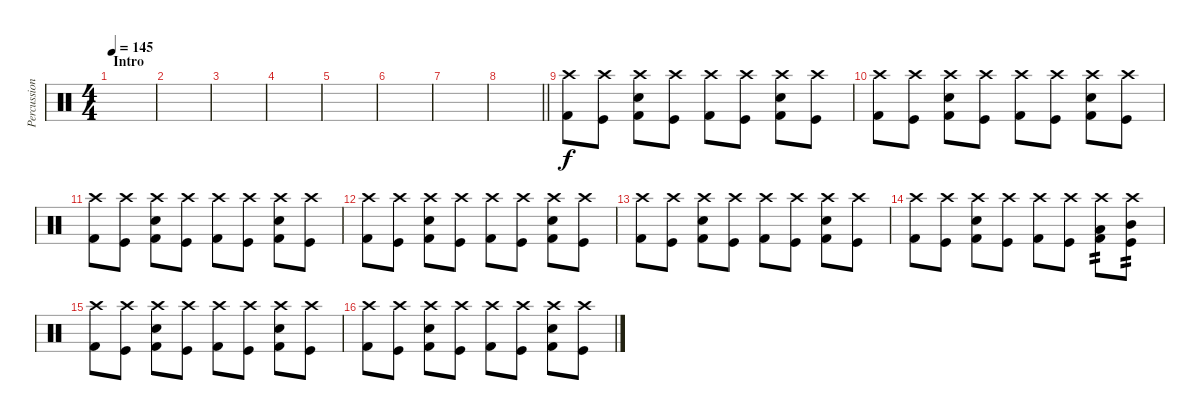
\track ("Percussion" "Percussion") {instrument percussion}
\staff {score}
\articulation defaults
\ts (4 4)
\section ("" "Intro")
\tempo 145
\clef neutral
\ks c
|
|
|
|
|
|
|
\barLineRight lightlight
|
("Crash high (hit)" "Kick (hit) 2").8 ("Crash high (hit)" "Kick (hit)").8 ("Crash high (hit)" "Snare (hit) 2" "Kick (hit) 2").8 ("Crash high (hit)" "Kick (hit)").8 ("Crash high (hit)" "Kick (hit) 2").8 ("Crash high (hit)" "Kick (hit)").8 ("Crash high (hit)" "Snare (hit) 2" "Kick (hit) 2").8 ("Crash high (hit)" "Kick (hit)").8 |
("Crash high (hit)" "Kick (hit) 2").8 ("Crash high (hit)" "Kick (hit)").8 ("Crash high (hit)" "Snare (hit) 2" "Kick (hit) 2").8 ("Crash high (hit)" "Kick (hit)").8 ("Crash high (hit)" "Kick (hit) 2").8 ("Crash high (hit)" "Kick (hit)").8 ("Crash high (hit)" "Snare (hit) 2" "Kick (hit) 2").8 ("Crash high (hit)" "Kick (hit)").8 |
("Crash high (hit)" "Kick (hit) 2").8 ("Crash high (hit)" "Kick (hit)").8 ("Crash high (hit)" "Snare (hit) 2" "Kick (hit) 2").8 ("Crash high (hit)" "Kick (hit)").8 ("Crash high (hit)" "Kick (hit) 2").8 ("Crash high (hit)" "Kick (hit)").8 ("Crash high (hit)" "Snare (hit) 2" "Kick (hit) 2").8 ("Crash high (hit)" "Kick (hit)").8 |
("Crash high (hit)" "Kick (hit) 2").8 ("Crash high (hit)" "Kick (hit)").8 ("Crash high (hit)" "Snare (hit) 2" "Kick (hit) 2").8 ("Crash high (hit)" "Kick (hit)").8 ("Crash high (hit)" "Kick (hit) 2").8 ("Crash high (hit)" "Kick (hit)").8 ("Crash high (hit)" "Snare (hit) 2" "Kick (hit) 2").8 ("Crash high (hit)" "Kick (hit)").8 |
("Crash high (hit)" "Kick (hit) 2").8 ("Crash high (hit)" "Kick (hit)").8 ("Crash high (hit)" "Snare (hit) 2" "Kick (hit) 2").8 ("Crash high (hit)" "Kick (hit)").8 ("Crash high (hit)" "Kick (hit) 2").8 ("Crash high (hit)" "Kick (hit)").8 ("Crash high (hit)" "Snare (hit) 2" "Kick (hit) 2").8 ("Crash high (hit)" "Kick (hit)").8 |
("Crash high (hit)" "Kick (hit) 2").8 ("Crash high (hit)" "Kick (hit)").8 ("Crash high (hit)" "Snare (hit) 2" "Kick (hit) 2").8 ("Crash high (hit)" "Kick (hit)").8 ("Crash high (hit)" "Kick (hit) 2").8 ("Crash high (hit)" "Kick (hit)").8 ("Crash high (hit)" "Low Tom (hit)" "Kick (hit) 2").8{tp 2} ("Crash high (hit)" "Mid Tom (hit)" "Kick (hit)").8{tp 2} |
("Crash high (hit)" "Kick (hit) 2").8 ("Crash high (hit)" "Kick (hit)").8 ("Crash high (hit)" "Snare (hit) 2" "Kick (hit) 2").8 ("Crash high (hit)" "Kick (hit)").8 ("Crash high (hit)" "Kick (hit) 2").8 ("Crash high (hit)" "Kick (hit)").8 ("Crash high (hit)" "Snare (hit) 2" "Kick (hit) 2").8 ("Crash high (hit)" "Kick (hit)").8 |
("Crash high (hit)" "Kick (hit) 2").8 ("Crash high (hit)" "Kick (hit)").8 ("Crash high (hit)" "Snare (hit) 2" "Kick (hit) 2").8 ("Crash high (hit)" "Kick (hit)").8 ("Crash high (hit)" "Kick (hit) 2").8 ("Crash high (hit)" "Kick (hit)").8 ("Crash high (hit)" "Snare (hit) 2" "Kick (hit) 2").8 ("Crash high (hit)" "Kick (hit)").8
